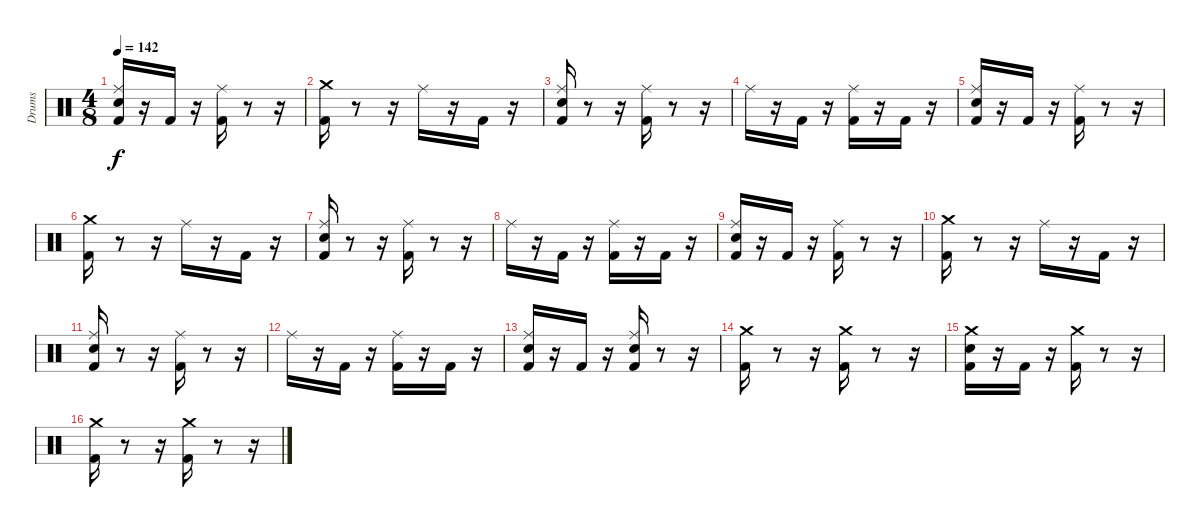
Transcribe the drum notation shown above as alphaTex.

\track ("Drums" "Drums") {instrument percussion}
\staff {score}
\articulation defaults
\ts (4 8)
\tempo 142
\clef neutral
\ks c
("Electric Snare (hit)" "Ride (middle)" "Kick (hit) 2").16{dy f} r.16 "Kick (hit) 2".16 r.16 ("Kick (hit) 2" "Ride (middle)").16 r.8 r.16 |
("Kick (hit) 2" "Crash medium (hit)").16 r.8 r.16 "Ride (middle)".16 r.16 "Kick (hit) 2".16 r.16 |
("Electric Snare (hit)" "Ride (middle)" "Kick (hit) 2").16 r.8 r.16 ("Kick (hit) 2" "Ride (middle)").16 r.8 r.16 |
"Ride (middle)".16 r.16 "Kick (hit) 2".16 r.16 ("Ride (middle)" "Kick (hit) 2").16 r.16 "Kick (hit) 2".16 r.16 |
("Electric Snare (hit)" "Ride (middle)" "Kick (hit) 2").16 r.16 "Kick (hit) 2".16 r.16 ("Kick (hit) 2" "Ride (middle)").16 r.8 r.16 |
("Kick (hit) 2" "Crash medium (hit)").16 r.8 r.16 "Ride (middle)".16 r.16 "Kick (hit) 2".16 r.16 |
("Electric Snare (hit)" "Ride (middle)" "Kick (hit) 2").16 r.8 r.16 ("Kick (hit) 2" "Ride (middle)").16 r.8 r.16 |
"Ride (middle)".16 r.16 "Kick (hit) 2".16 r.16 ("Ride (middle)" "Kick (hit) 2").16 r.16 "Kick (hit) 2".16 r.16 |
("Electric Snare (hit)" "Ride (middle)" "Kick (hit) 2").16 r.16 "Kick (hit) 2".16 r.16 ("Kick (hit) 2" "Ride (middle)").16 r.8 r.16 |
("Kick (hit) 2" "Crash medium (hit)").16 r.8 r.16 "Ride (middle)".16 r.16 "Kick (hit) 2".16 r.16 |
("Electric Snare (hit)" "Ride (middle)" "Kick (hit) 2").16 r.8 r.16 ("Kick (hit) 2" "Ride (middle)").16 r.8 r.16 |
"Ride (middle)".16 r.16 "Kick (hit) 2".16 r.16 ("Ride (middle)" "Kick (hit) 2").16 r.16 "Kick (hit) 2".16 r.16 |
("Electric Snare (hit)" "Ride (middle)" "Kick (hit) 2").16 r.16 "Kick (hit) 2".16 r.16 ("Kick (hit) 2" "Ride (middle)" "Electric Snare (hit)").16 r.8 r.16 |
("Kick (hit) 2" "Crash medium (hit)").16 r.8 r.16 ("Kick (hit) 2" "Crash medium (hit)").16 r.8 r.16 |
("Electric Snare (hit)" "Crash medium (hit)" "Kick (hit) 2").16 r.16 "Kick (hit) 2".16 r.16 ("Kick (hit) 2" "Crash medium (hit)").16 r.8 r.16 |
("Kick (hit) 2" "Crash medium (hit)").16 r.8 r.16 ("Kick (hit) 2" "Crash medium (hit)").16 r.8 r.16
